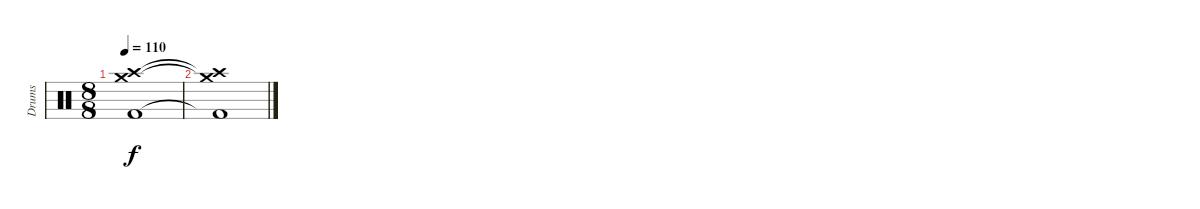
\track ("Drums" "Drums") {instrument percussion}
\staff {score}
\articulation defaults
\ts (8 8)
\tempo 110
\clef neutral
\ks c
("Crash medium (hit)" "Crash high (hit)" "Kick (hit) 2").1{dy f} |
("Crash medium (hit)"{t} "Crash high (hit)"{t} "Kick (hit) 2"{t}).1
